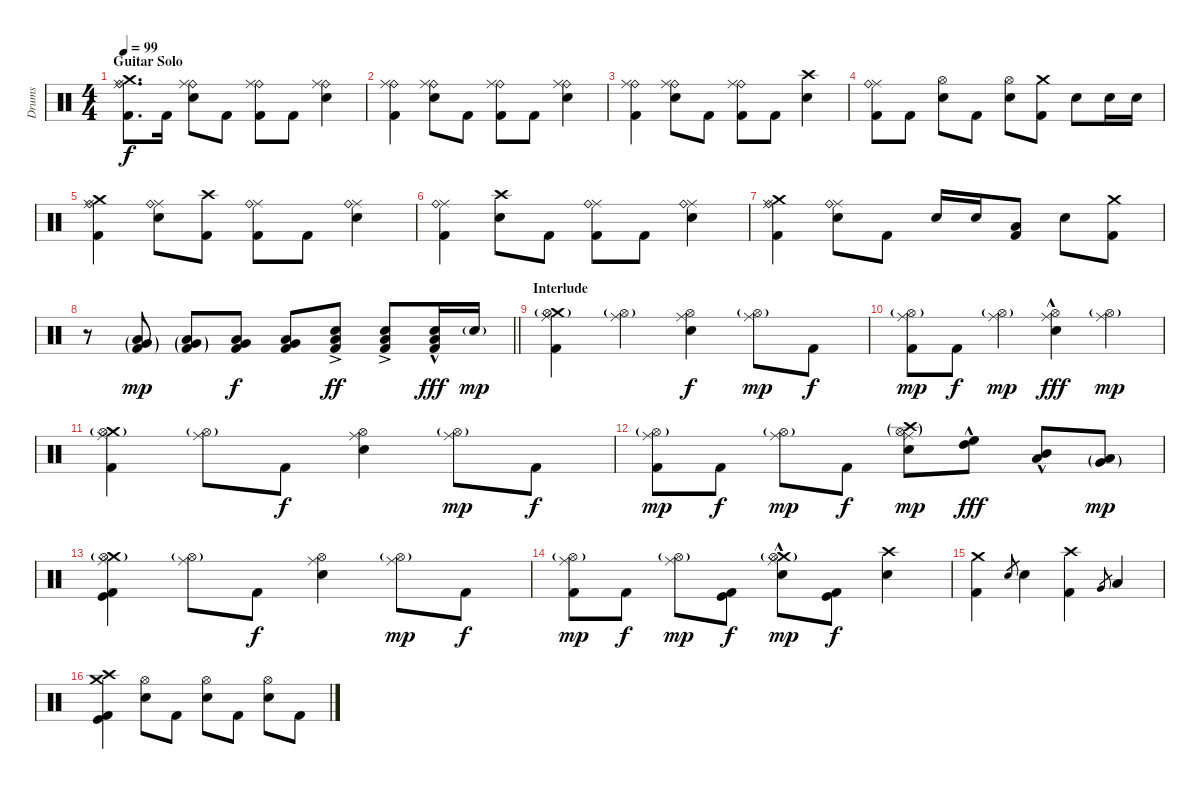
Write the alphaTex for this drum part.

\track ("Drums" "Drums") {instrument percussion}
\staff {score}
\articulation defaults
\ts (4 4)
\section ("" "Guitar Solo")
\tempo 99
\clef neutral
\ks c
("Crash medium (hit)" "Kick (hit) 2" "Ride (middle)" "Ride (bell)").8{d dy f} "Kick (hit) 2".16 ("Electric Snare (hit)" "Ride (bell)" "Ride (middle)").8 "Kick (hit) 2".8 ("Kick (hit) 2" "Ride (bell)" "Ride (middle)").8 "Kick (hit) 2".8 ("Electric Snare (hit)" "Ride (bell)" "Ride (middle)").4 |
("Kick (hit) 2" "Ride (bell)" "Ride (middle)").4 ("Electric Snare (hit)" "Ride (bell)" "Ride (middle)").8 "Kick (hit) 2".8 ("Kick (hit) 2" "Ride (bell)" "Ride (middle)").8 "Kick (hit) 2".8 ("Electric Snare (hit)" "Ride (bell)" "Ride (middle)").4 |
("Kick (hit) 2" "Ride (bell)" "Ride (middle)").4 ("Electric Snare (hit)" "Ride (bell)" "Ride (middle)").8 "Kick (hit) 2".8 ("Kick (hit) 2" "Ride (bell)" "Ride (middle)").8 "Kick (hit) 2".8 ("Crash high (hit)" "Electric Snare (hit)").4 |
("Kick (hit) 2" "Ride (middle)" "Ride (bell)").8 "Kick (hit) 2".8 ("Hi-Hat (open)" "Electric Snare (hit)").8 "Kick (hit) 2".8 ("Hi-Hat (open)" "Electric Snare (hit)").8 ("Crash medium (hit)" "Kick (hit) 2").8 "Electric Snare (hit)".8 "Electric Snare (hit)".16 "Electric Snare (hit)".16 |
("Crash medium (hit)" "Kick (hit) 2" "Ride (middle)" "Ride (bell)").4 ("Electric Snare (hit)" "Ride (middle)" "Ride (bell)").8 ("Crash high (hit)" "Kick (hit) 2").8 ("Kick (hit) 2" "Ride (middle)" "Ride (bell)").8 "Kick (hit) 2".8 ("Electric Snare (hit)" "Ride (middle)" "Ride (bell)").4 |
("Kick (hit) 2" "Ride (middle)" "Ride (bell)").4 ("Crash high (hit)" "Electric Snare (hit)").8 "Kick (hit) 2".8 ("Kick (hit) 2" "Ride (middle)" "Ride (bell)").8 "Kick (hit) 2".8 ("Electric Snare (hit)" "Ride (middle)" "Ride (bell)").4 |
("Crash medium (hit)" "Kick (hit) 2" "Ride (middle)" "Ride (bell)").4 ("Electric Snare (hit)" "Ride (middle)" "Ride (bell)").8 "Kick (hit) 2".8 "Electric Snare (hit)".16 "Electric Snare (hit)".16 ("Low Tom (hit)" "Kick (hit) 2").8 "Electric Snare (hit)".8 ("Crash medium (hit)" "Kick (hit) 2").8 |
\barLineRight lightlight
r.8 ("Low Floor Tom (hit)"{g} "Kick (hit) 2"{g} "Very Low Tom (hit)"{g}).8{dy mp} ("Low Floor Tom (hit)"{g} "Kick (hit) 2"{g} "Very Low Tom (hit)"{g}).8 ("Low Floor Tom (hit)" "Kick (hit) 2" "Very Low Tom (hit)").8{dy f} ("Low Floor Tom (hit)" "Kick (hit) 2" "Very Low Tom (hit)").8 ("Low Floor Tom (hit)"{ac} "Kick (hit) 2"{ac} "Electric Snare (hit)"{ac}).8{dy ff} ("Low Floor Tom (hit)"{ac} "Kick (hit) 2"{ac} "Electric Snare (hit)"{ac}).8 ("Low Floor Tom (hit)"{hac} "Kick (hit) 2"{hac} "Electric Snare (hit)").16{dy fff} "Electric Snare (hit)"{g}.16{dy mp} |
\section ("" "Interlude")
("Crash medium (hit)" "Kick (hit) 2" "Ride (middle)" "Hi-Hat (open)"{g}).4 ("Ride (middle)" "Hi-Hat (open)"{g}).4 ("Electric Snare (hit)" "Ride (middle)" "Hi-Hat (open)").4{dy f} ("Ride (middle)" "Hi-Hat (open)"{g}).8{dy mp} "Kick (hit) 2".8{dy f} |
("Kick (hit) 2" "Ride (middle)" "Hi-Hat (open)"{g}).8{dy mp} "Kick (hit) 2".8{dy f} ("Ride (middle)" "Hi-Hat (open)"{g}).4{dy mp} ("Electric Snare (hit)"{hac} "Ride (middle)" "Hi-Hat (open)").4{dy fff} ("Ride (middle)" "Hi-Hat (open)"{g}).4{dy mp} |
("Crash medium (hit)" "Kick (hit) 2" "Ride (middle)" "Hi-Hat (open)"{g}).4 ("Ride (middle)" "Hi-Hat (open)"{g}).8 "Kick (hit) 2".8{dy f} ("Electric Snare (hit)" "Ride (middle)" "Hi-Hat (open)").4 ("Ride (middle)" "Hi-Hat (open)"{g}).8{dy mp} "Kick (hit) 2".8{dy f} |
("Kick (hit) 2" "Ride (middle)" "Hi-Hat (open)"{g}).8{dy mp} "Kick (hit) 2".8{dy f} ("Ride (middle)" "Hi-Hat (open)"{g}).8{dy mp} "Kick (hit) 2".8{dy f} ("Crash high (hit)"{g} "Electric Snare (hit)" "Ride (middle)" "Hi-Hat (open)"{g}).8{dy mp} ("High Floor Tom (hit)"{hac} "High Tom (hit)"{hac}).8{dy fff} ("Mid Tom (hit)"{hac} "Low Tom (hit)"{hac}).8 ("Very Low Tom (hit)"{g} "Low Floor Tom (hit)"{g}).8{dy mp} |
("Crash medium (hit)" "Kick (hit) 2" "Kick (hit)" "Ride (middle)" "Hi-Hat (open)"{g}).4 ("Ride (middle)" "Hi-Hat (open)"{g}).8 "Kick (hit) 2".8{dy f} ("Electric Snare (hit)" "Ride (middle)" "Hi-Hat (open)").4 ("Ride (middle)" "Hi-Hat (open)"{g}).8{dy mp} "Kick (hit) 2".8{dy f} |
("Kick (hit) 2" "Ride (middle)" "Hi-Hat (open)"{g}).8{dy mp} "Kick (hit) 2".8{dy f} ("Ride (middle)" "Hi-Hat (open)"{g}).8{dy mp} ("Kick (hit) 2" "Kick (hit)").8{dy f} ("Crash medium (hit)" "Electric Snare (hit)"{hac} "Ride (middle)" "Hi-Hat (open)"{g}).8{dy mp} ("Kick (hit) 2" "Kick (hit)").8{dy f} ("Crash high (hit)" "Electric Snare (hit)").4 |
("Crash medium (hit)" "Kick (hit) 2").4 "Electric Snare (hit)".8{gr} "Electric Snare (hit)".4 ("Crash high (hit)" "Kick (hit) 2").4 "Very Low Tom (hit)".8{gr} "Low Floor Tom (hit)".4 |
("Crash medium (hit)" "Crash high (hit)" "Kick (hit) 2" "Kick (hit)").4 ("Hi-Hat (open)" "Electric Snare (hit)").8 "Kick (hit) 2".8 ("Hi-Hat (open)" "Electric Snare (hit)").8 "Kick (hit) 2".8 ("Hi-Hat (open)" "Electric Snare (hit)").8 "Kick (hit) 2".8
